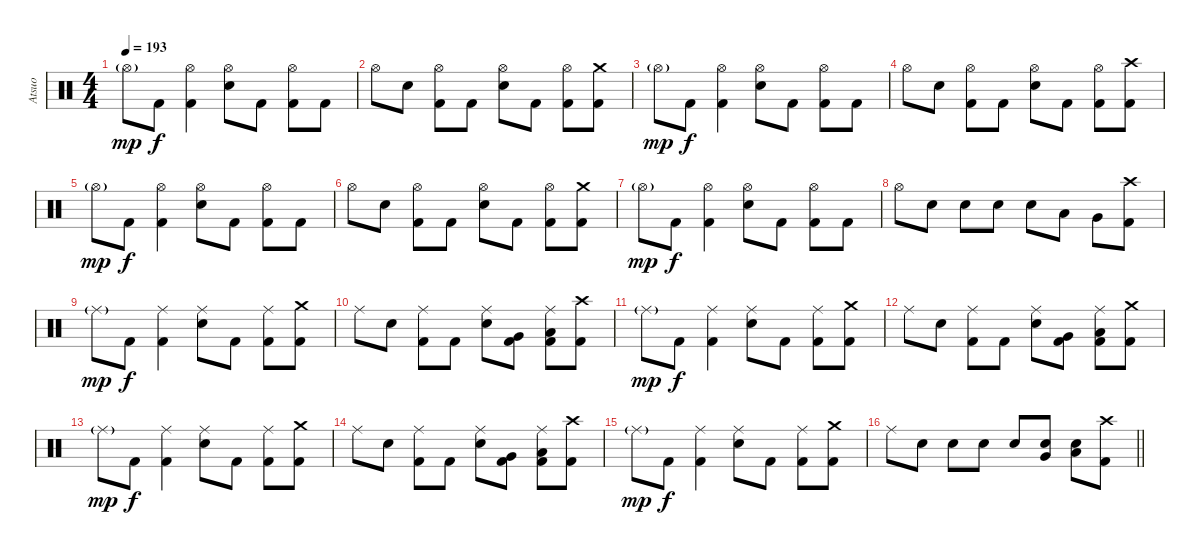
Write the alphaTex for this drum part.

\track ("Atsuo" "Atsuo") {instrument percussion}
\staff {score}
\articulation defaults
\ts (4 4)
\tempo 193
\clef neutral
\ks c "Hi-Hat (open)"{g}.8{dy mp} "Kick (hit) 2".8{dy f}
("Hi-Hat (open)" "Kick (hit) 2").4 ("Hi-Hat (open)" "Electric Snare (hit)").8 "Kick (hit) 2".8 ("Hi-Hat (open)" "Kick (hit) 2").8 "Kick (hit) 2".8 |
"Hi-Hat (open)".8 "Electric Snare (hit)".8 ("Hi-Hat (open)" "Kick (hit) 2").8 "Kick (hit) 2".8 ("Hi-Hat (open)" "Electric Snare (hit)").8 "Kick (hit) 2".8 ("Hi-Hat (open)" "Kick (hit) 2").8 ("Crash medium (hit)" "Kick (hit) 2").8 |
"Hi-Hat (open)"{g}.8{dy mp} "Kick (hit) 2".8{dy f} ("Hi-Hat (open)" "Kick (hit) 2").4 ("Hi-Hat (open)" "Electric Snare (hit)").8 "Kick (hit) 2".8 ("Hi-Hat (open)" "Kick (hit) 2").8 "Kick (hit) 2".8 |
"Hi-Hat (open)".8 "Electric Snare (hit)".8 ("Hi-Hat (open)" "Kick (hit) 2").8 "Kick (hit) 2".8 ("Hi-Hat (open)" "Electric Snare (hit)").8 "Kick (hit) 2".8 ("Hi-Hat (open)" "Kick (hit) 2").8 ("Crash high (hit)" "Kick (hit) 2").8 |
"Hi-Hat (open)"{g}.8{dy mp} "Kick (hit) 2".8{dy f} ("Hi-Hat (open)" "Kick (hit) 2").4 ("Hi-Hat (open)" "Electric Snare (hit)").8 "Kick (hit) 2".8 ("Hi-Hat (open)" "Kick (hit) 2").8 "Kick (hit) 2".8 |
"Hi-Hat (open)".8 "Electric Snare (hit)".8 ("Hi-Hat (open)" "Kick (hit) 2").8 "Kick (hit) 2".8 ("Hi-Hat (open)" "Electric Snare (hit)").8 "Kick (hit) 2".8 ("Hi-Hat (open)" "Kick (hit) 2").8 ("Crash medium (hit)" "Kick (hit) 2").8 |
"Hi-Hat (open)"{g}.8{dy mp} "Kick (hit) 2".8{dy f} ("Hi-Hat (open)" "Kick (hit) 2").4 ("Hi-Hat (open)" "Electric Snare (hit)").8 "Kick (hit) 2".8 ("Hi-Hat (open)" "Kick (hit) 2").8 "Kick (hit) 2".8 |
"Hi-Hat (open)".8 "Electric Snare (hit)".8 "Electric Snare (hit)".8 "Electric Snare (hit)".8 "Electric Snare (hit)".8 "Low Tom (hit)".8 "Very Low Tom (hit)".8 ("Crash high (hit)" "Kick (hit) 2").8 |
"Ride (middle)"{g}.8{dy mp} "Kick (hit) 2".8{dy f} ("Ride (middle)" "Kick (hit) 2").4 ("Ride (middle)" "Electric Snare (hit)").8 "Kick (hit) 2".8 ("Ride (middle)" "Kick (hit) 2").8 ("Crash medium (hit)" "Kick (hit) 2").8 |
"Ride (middle)".8 "Electric Snare (hit)".8 ("Ride (middle)" "Kick (hit) 2").8 "Kick (hit) 2".8 ("Ride (middle)" "Electric Snare (hit)").8 ("Very Low Tom (hit)" "Kick (hit) 2").8 ("Ride (middle)" "Low Floor Tom (hit)" "Kick (hit) 2").8 ("Crash high (hit)" "Kick (hit) 2").8 |
"Ride (middle)"{g}.8{dy mp} "Kick (hit) 2".8{dy f} ("Ride (middle)" "Kick (hit) 2").4 ("Ride (middle)" "Electric Snare (hit)").8 "Kick (hit) 2".8 ("Ride (middle)" "Kick (hit) 2").8 ("Crash medium (hit)" "Kick (hit) 2").8 |
"Ride (middle)".8 "Electric Snare (hit)".8 ("Ride (middle)" "Kick (hit) 2").8 "Kick (hit) 2".8 ("Ride (middle)" "Electric Snare (hit)").8 ("Very Low Tom (hit)" "Kick (hit) 2").8 ("Ride (middle)" "Low Floor Tom (hit)" "Kick (hit) 2").8 ("Crash medium (hit)" "Kick (hit) 2").8 |
"Ride (middle)"{g}.8{dy mp} "Kick (hit) 2".8{dy f} ("Ride (middle)" "Kick (hit) 2").4 ("Ride (middle)" "Electric Snare (hit)").8 "Kick (hit) 2".8 ("Ride (middle)" "Kick (hit) 2").8 ("Crash medium (hit)" "Kick (hit) 2").8 |
"Ride (middle)".8 "Electric Snare (hit)".8 ("Ride (middle)" "Kick (hit) 2").8 "Kick (hit) 2".8 ("Ride (middle)" "Electric Snare (hit)").8 ("Very Low Tom (hit)" "Kick (hit) 2").8 ("Ride (middle)" "Low Floor Tom (hit)" "Kick (hit) 2").8 ("Crash high (hit)" "Kick (hit) 2").8 |
"Ride (middle)"{g}.8{dy mp} "Kick (hit) 2".8{dy f} ("Ride (middle)" "Kick (hit) 2").4 ("Ride (middle)" "Electric Snare (hit)").8 "Kick (hit) 2".8 ("Ride (middle)" "Kick (hit) 2").8 ("Crash medium (hit)" "Kick (hit) 2").8 |
\barLineRight lightlight "Ride (middle)".8 "Electric Snare (hit)".8 "Electric Snare (hit)".8 "Electric Snare (hit)".8 "Electric Snare (hit)".8
("Electric Snare (hit)" "Very Low Tom (hit)").8 ("Electric Snare (hit)" "Low Floor Tom (hit)").8 ("Crash high (hit)" "Kick (hit) 2").8
